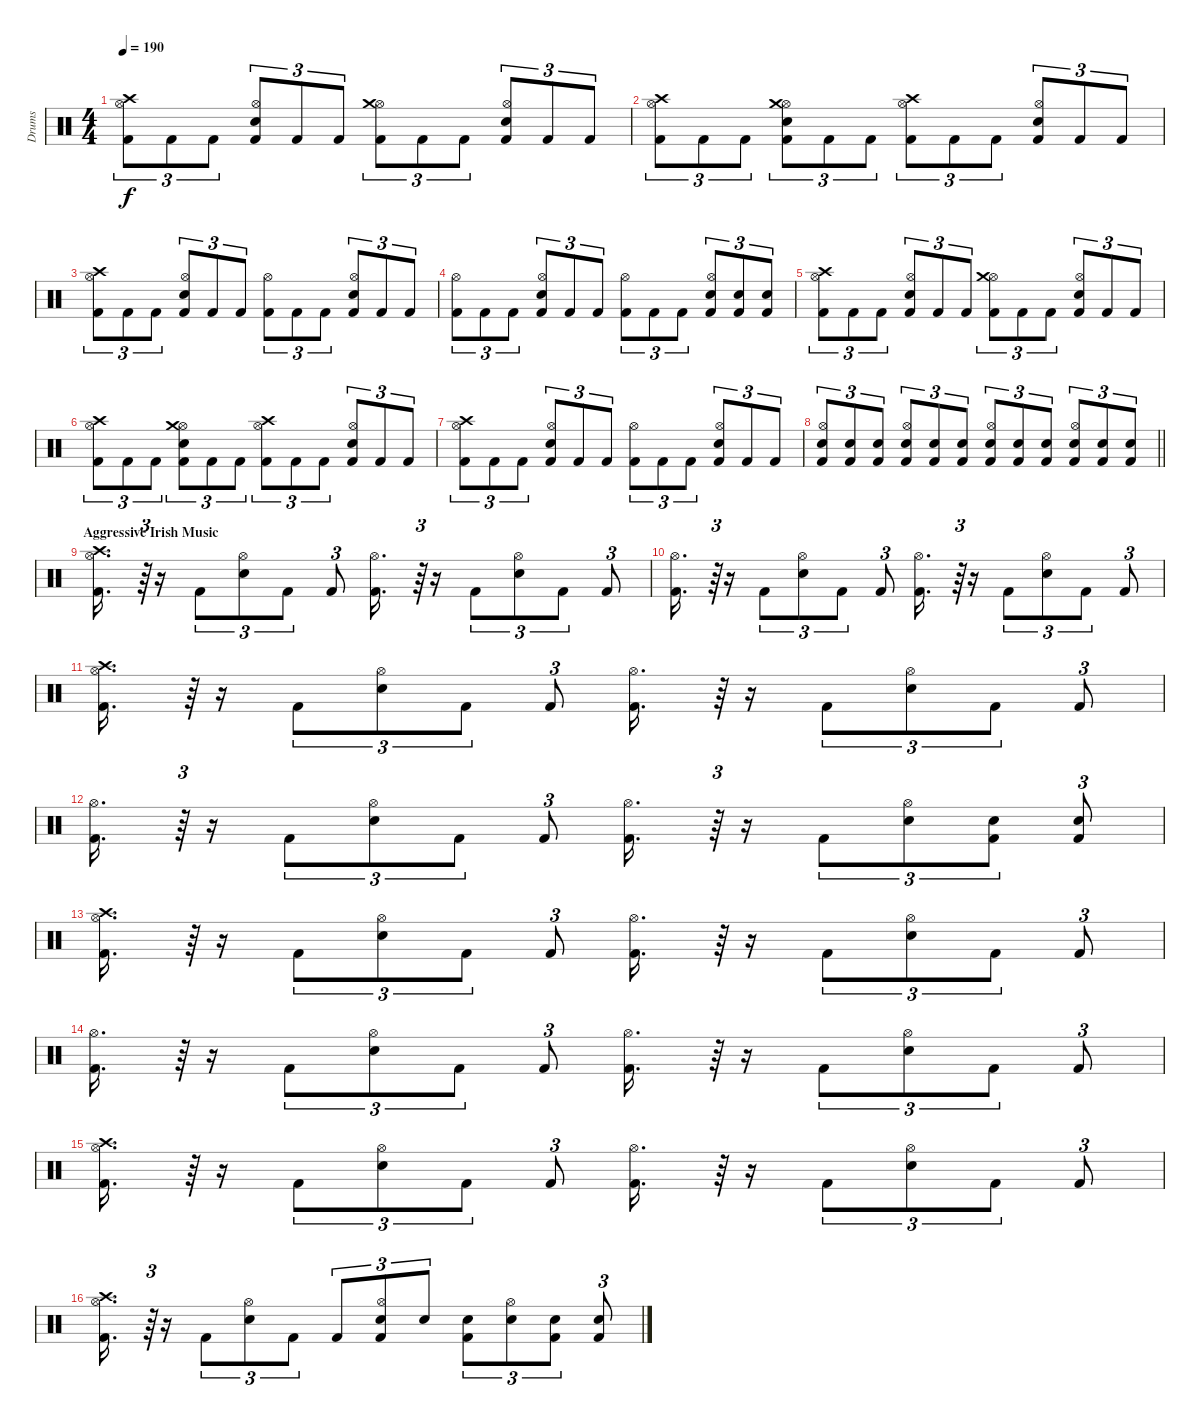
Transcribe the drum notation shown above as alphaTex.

\track ("Drums" "Drums") {instrument percussion}
\staff {score}
\articulation defaults
\ts (4 4)
\tempo 190
\clef neutral
\ks c
("Kick (hit) 2" "Hi-Hat (open)" "Crash high (hit)").8{tu (3 2) dy f} "Kick (hit) 2".8{tu (3 2)} "Kick (hit) 2".8{tu (3 2)} ("Kick (hit) 2" "Snare (hit) 2" "Hi-Hat (open)").8{tu (3 2)} "Kick (hit) 2".8{tu (3 2)} "Kick (hit) 2".8{tu (3 2)} ("Kick (hit) 2" "Hi-Hat (open)" "Crash medium (hit)").8{tu (3 2)} "Kick (hit) 2".8{tu (3 2)} "Kick (hit) 2".8{tu (3 2)} ("Kick (hit) 2" "Snare (hit) 2" "Hi-Hat (open)").8{tu (3 2)} "Kick (hit) 2".8{tu (3 2)} "Kick (hit) 2".8{tu (3 2)} |
("Kick (hit) 2" "Hi-Hat (open)" "Crash high (hit)").8{tu (3 2)} "Kick (hit) 2".8{tu (3 2)} "Kick (hit) 2".8{tu (3 2)} ("Kick (hit) 2" "Snare (hit) 2" "Hi-Hat (open)" "Crash medium (hit)").8{tu (3 2)} "Kick (hit) 2".8{tu (3 2)} "Kick (hit) 2".8{tu (3 2)} ("Kick (hit) 2" "Hi-Hat (open)" "Crash high (hit)").8{tu (3 2)} "Kick (hit) 2".8{tu (3 2)} "Kick (hit) 2".8{tu (3 2)} ("Kick (hit) 2" "Snare (hit) 2" "Hi-Hat (open)").8{tu (3 2)} "Kick (hit) 2".8{tu (3 2)} "Kick (hit) 2".8{tu (3 2)} |
("Kick (hit) 2" "Hi-Hat (open)" "Crash high (hit)").8{tu (3 2)} "Kick (hit) 2".8{tu (3 2)} "Kick (hit) 2".8{tu (3 2)} ("Kick (hit) 2" "Snare (hit) 2" "Hi-Hat (open)").8{tu (3 2)} "Kick (hit) 2".8{tu (3 2)} "Kick (hit) 2".8{tu (3 2)} ("Kick (hit) 2" "Hi-Hat (open)").8{tu (3 2)} "Kick (hit) 2".8{tu (3 2)} "Kick (hit) 2".8{tu (3 2)} ("Kick (hit) 2" "Snare (hit) 2" "Hi-Hat (open)").8{tu (3 2)} "Kick (hit) 2".8{tu (3 2)} "Kick (hit) 2".8{tu (3 2)} |
("Kick (hit) 2" "Hi-Hat (open)").8{tu (3 2)} "Kick (hit) 2".8{tu (3 2)} "Kick (hit) 2".8{tu (3 2)} ("Kick (hit) 2" "Snare (hit) 2" "Hi-Hat (open)").8{tu (3 2)} "Kick (hit) 2".8{tu (3 2)} "Kick (hit) 2".8{tu (3 2)} ("Kick (hit) 2" "Hi-Hat (open)").8{tu (3 2)} "Kick (hit) 2".8{tu (3 2)} "Kick (hit) 2".8{tu (3 2)} ("Kick (hit) 2" "Snare (hit) 2" "Hi-Hat (open)").8{tu (3 2)} ("Kick (hit) 2" "Snare (hit) 2").8{tu (3 2)} ("Kick (hit) 2" "Snare (hit) 2").8{tu (3 2)} |
("Kick (hit) 2" "Hi-Hat (open)" "Crash high (hit)").8{tu (3 2)} "Kick (hit) 2".8{tu (3 2)} "Kick (hit) 2".8{tu (3 2)} ("Kick (hit) 2" "Snare (hit) 2" "Hi-Hat (open)").8{tu (3 2)} "Kick (hit) 2".8{tu (3 2)} "Kick (hit) 2".8{tu (3 2)} ("Kick (hit) 2" "Hi-Hat (open)" "Crash medium (hit)").8{tu (3 2)} "Kick (hit) 2".8{tu (3 2)} "Kick (hit) 2".8{tu (3 2)} ("Kick (hit) 2" "Snare (hit) 2" "Hi-Hat (open)").8{tu (3 2)} "Kick (hit) 2".8{tu (3 2)} "Kick (hit) 2".8{tu (3 2)} |
("Kick (hit) 2" "Hi-Hat (open)" "Crash high (hit)").8{tu (3 2)} "Kick (hit) 2".8{tu (3 2)} "Kick (hit) 2".8{tu (3 2)} ("Kick (hit) 2" "Snare (hit) 2" "Hi-Hat (open)" "Crash medium (hit)").8{tu (3 2)} "Kick (hit) 2".8{tu (3 2)} "Kick (hit) 2".8{tu (3 2)} ("Kick (hit) 2" "Hi-Hat (open)" "Crash high (hit)").8{tu (3 2)} "Kick (hit) 2".8{tu (3 2)} "Kick (hit) 2".8{tu (3 2)} ("Kick (hit) 2" "Snare (hit) 2" "Hi-Hat (open)").8{tu (3 2)} "Kick (hit) 2".8{tu (3 2)} "Kick (hit) 2".8{tu (3 2)} |
("Kick (hit) 2" "Hi-Hat (open)" "Crash high (hit)").8{tu (3 2)} "Kick (hit) 2".8{tu (3 2)} "Kick (hit) 2".8{tu (3 2)} ("Kick (hit) 2" "Snare (hit) 2" "Hi-Hat (open)").8{tu (3 2)} "Kick (hit) 2".8{tu (3 2)} "Kick (hit) 2".8{tu (3 2)} ("Kick (hit) 2" "Hi-Hat (open)").8{tu (3 2)} "Kick (hit) 2".8{tu (3 2)} "Kick (hit) 2".8{tu (3 2)} ("Kick (hit) 2" "Snare (hit) 2" "Hi-Hat (open)").8{tu (3 2)} "Kick (hit) 2".8{tu (3 2)} "Kick (hit) 2".8{tu (3 2)} |
\barLineRight lightlight
("Kick (hit) 2" "Snare (hit) 2" "Hi-Hat (open)").8{tu (3 2)} ("Kick (hit) 2" "Snare (hit) 2").8{tu (3 2)} ("Kick (hit) 2" "Snare (hit) 2").8{tu (3 2)} ("Kick (hit) 2" "Snare (hit) 2" "Hi-Hat (open)").8{tu (3 2)} ("Kick (hit) 2" "Snare (hit) 2").8{tu (3 2)} ("Kick (hit) 2" "Snare (hit) 2").8{tu (3 2)} ("Kick (hit) 2" "Snare (hit) 2" "Hi-Hat (open)").8{tu (3 2)} ("Kick (hit) 2" "Snare (hit) 2").8{tu (3 2)} ("Kick (hit) 2" "Snare (hit) 2").8{tu (3 2)} ("Kick (hit) 2" "Snare (hit) 2" "Hi-Hat (open)").8{tu (3 2)} ("Kick (hit) 2" "Snare (hit) 2").8{tu (3 2)} ("Kick (hit) 2" "Snare (hit) 2").8{tu (3 2)} |
\section ("" "Aggressive Irish Music")
("Kick (hit) 2" "Hi-Hat (open)" "Crash high (hit)").16{d} r.64{tu (3 2)} r.16 "Kick (hit) 2".8{tu (3 2)} ("Snare (hit) 2" "Hi-Hat (open)").8{tu (3 2)} "Kick (hit) 2".8{tu (3 2)} "Kick (hit) 2".8{tu (3 2)} ("Kick (hit) 2" "Hi-Hat (open)").16{d} r.64{tu (3 2)} r.16 "Kick (hit) 2".8{tu (3 2)} ("Snare (hit) 2" "Hi-Hat (open)").8{tu (3 2)} "Kick (hit) 2".8{tu (3 2)} "Kick (hit) 2".8{tu (3 2)} |
("Kick (hit) 2" "Hi-Hat (open)").16{d} r.64{tu (3 2)} r.16 "Kick (hit) 2".8{tu (3 2)} ("Snare (hit) 2" "Hi-Hat (open)").8{tu (3 2)} "Kick (hit) 2".8{tu (3 2)} "Kick (hit) 2".8{tu (3 2)} ("Kick (hit) 2" "Hi-Hat (open)").16{d} r.64{tu (3 2)} r.16 "Kick (hit) 2".8{tu (3 2)} ("Snare (hit) 2" "Hi-Hat (open)").8{tu (3 2)} "Kick (hit) 2".8{tu (3 2)} "Kick (hit) 2".8{tu (3 2)} |
("Kick (hit) 2" "Hi-Hat (open)" "Crash high (hit)").16{d} r.64{tu (3 2)} r.16 "Kick (hit) 2".8{tu (3 2)} ("Snare (hit) 2" "Hi-Hat (open)").8{tu (3 2)} "Kick (hit) 2".8{tu (3 2)} "Kick (hit) 2".8{tu (3 2)} ("Kick (hit) 2" "Hi-Hat (open)").16{d} r.64{tu (3 2)} r.16 "Kick (hit) 2".8{tu (3 2)} ("Snare (hit) 2" "Hi-Hat (open)").8{tu (3 2)} "Kick (hit) 2".8{tu (3 2)} "Kick (hit) 2".8{tu (3 2)} |
("Kick (hit) 2" "Hi-Hat (open)").16{d} r.64{tu (3 2)} r.16 "Kick (hit) 2".8{tu (3 2)} ("Snare (hit) 2" "Hi-Hat (open)").8{tu (3 2)} "Kick (hit) 2".8{tu (3 2)} "Kick (hit) 2".8{tu (3 2)} ("Kick (hit) 2" "Hi-Hat (open)").16{d} r.64{tu (3 2)} r.16 "Kick (hit) 2".8{tu (3 2)} ("Snare (hit) 2" "Hi-Hat (open)").8{tu (3 2)} ("Kick (hit) 2" "Snare (hit) 2").8{tu (3 2)} ("Kick (hit) 2" "Snare (hit) 2").8{tu (3 2)} |
("Kick (hit) 2" "Hi-Hat (open)" "Crash high (hit)").16{d} r.64{tu (3 2)} r.16 "Kick (hit) 2".8{tu (3 2)} ("Snare (hit) 2" "Hi-Hat (open)").8{tu (3 2)} "Kick (hit) 2".8{tu (3 2)} "Kick (hit) 2".8{tu (3 2)} ("Kick (hit) 2" "Hi-Hat (open)").16{d} r.64{tu (3 2)} r.16 "Kick (hit) 2".8{tu (3 2)} ("Snare (hit) 2" "Hi-Hat (open)").8{tu (3 2)} "Kick (hit) 2".8{tu (3 2)} "Kick (hit) 2".8{tu (3 2)} |
("Kick (hit) 2" "Hi-Hat (open)").16{d} r.64{tu (3 2)} r.16 "Kick (hit) 2".8{tu (3 2)} ("Snare (hit) 2" "Hi-Hat (open)").8{tu (3 2)} "Kick (hit) 2".8{tu (3 2)} "Kick (hit) 2".8{tu (3 2)} ("Kick (hit) 2" "Hi-Hat (open)").16{d} r.64{tu (3 2)} r.16 "Kick (hit) 2".8{tu (3 2)} ("Snare (hit) 2" "Hi-Hat (open)").8{tu (3 2)} "Kick (hit) 2".8{tu (3 2)} "Kick (hit) 2".8{tu (3 2)} |
("Kick (hit) 2" "Hi-Hat (open)" "Crash high (hit)").16{d} r.64{tu (3 2)} r.16 "Kick (hit) 2".8{tu (3 2)} ("Snare (hit) 2" "Hi-Hat (open)").8{tu (3 2)} "Kick (hit) 2".8{tu (3 2)} "Kick (hit) 2".8{tu (3 2)} ("Kick (hit) 2" "Hi-Hat (open)").16{d} r.64{tu (3 2)} r.16 "Kick (hit) 2".8{tu (3 2)} ("Snare (hit) 2" "Hi-Hat (open)").8{tu (3 2)} "Kick (hit) 2".8{tu (3 2)} "Kick (hit) 2".8{tu (3 2)} |
("Kick (hit) 2" "Hi-Hat (open)" "Crash high (hit)").16{d} r.64{tu (3 2)} r.16 "Kick (hit) 2".8{tu (3 2)} ("Snare (hit) 2" "Hi-Hat (open)").8{tu (3 2)} "Kick (hit) 2".8{tu (3 2)} "Kick (hit) 2".8{tu (3 2)} ("Kick (hit) 2" "Snare (hit) 2" "Hi-Hat (open)").8{tu (3 2)} "Snare (hit) 2".8{tu (3 2)} ("Kick (hit) 2" "Snare (hit) 2").8{tu (3 2)} ("Snare (hit) 2" "Hi-Hat (open)").8{tu (3 2)} ("Kick (hit) 2" "Snare (hit) 2").8{tu (3 2)} ("Kick (hit) 2" "Snare (hit) 2").8{tu (3 2)}
